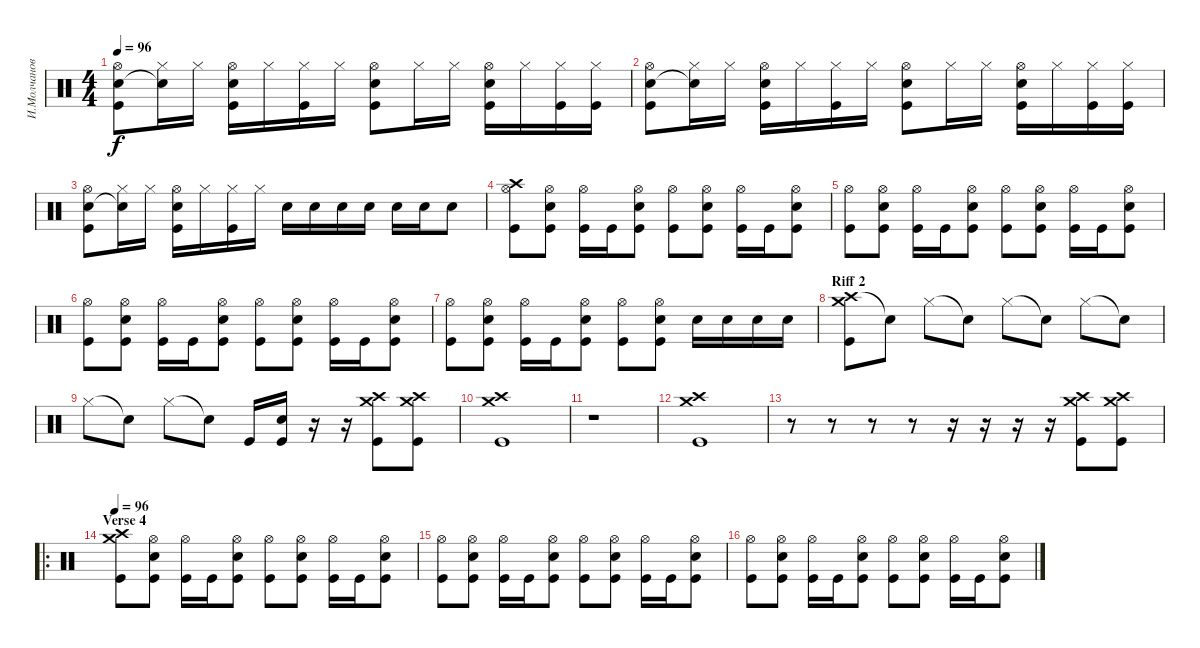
\track ("И.Молчанов" "И.Молчанов") {instrument percussion}
\staff {score}
\articulation defaults
\ts (4 4)
\tempo 96
\clef neutral
\ks c
("Hi-Hat (open)" "Snare (hit) 2" "Kick (hit)").8{dy f} ("Hi-Hat (closed)" "Snare (hit)"{t}).16 "Hi-Hat (closed)".16 ("Hi-Hat (open)" "Snare (hit) 2" "Kick (hit)").16 "Hi-Hat (closed)".16 ("Hi-Hat (closed)" "Kick (hit)").16 "Hi-Hat (closed)".16 ("Hi-Hat (open)" "Snare (hit) 2" "Kick (hit)").8 "Hi-Hat (closed)".16 "Hi-Hat (closed)".16 ("Hi-Hat (open)" "Snare (hit) 2" "Kick (hit)").16 "Hi-Hat (closed)".16 ("Hi-Hat (closed)" "Kick (hit)").16 ("Hi-Hat (closed)" "Kick (hit)").16 |
("Hi-Hat (open)" "Snare (hit) 2" "Kick (hit)").8 ("Hi-Hat (closed)" "Snare (hit)"{t}).16 "Hi-Hat (closed)".16 ("Hi-Hat (open)" "Snare (hit) 2" "Kick (hit)").16 "Hi-Hat (closed)".16 ("Hi-Hat (closed)" "Kick (hit)").16 "Hi-Hat (closed)".16 ("Hi-Hat (open)" "Snare (hit) 2" "Kick (hit)").8 "Hi-Hat (closed)".16 "Hi-Hat (closed)".16 ("Hi-Hat (open)" "Snare (hit) 2" "Kick (hit)").16 "Hi-Hat (closed)".16 ("Hi-Hat (closed)" "Kick (hit)").16 ("Hi-Hat (closed)" "Kick (hit)").16 |
("Hi-Hat (open)" "Snare (hit) 2" "Kick (hit)").8 ("Hi-Hat (closed)" "Snare (hit)"{t}).16 "Hi-Hat (closed)".16 ("Hi-Hat (open)" "Snare (hit) 2" "Kick (hit)").16 "Hi-Hat (closed)".16 ("Hi-Hat (closed)" "Kick (hit)").16 "Hi-Hat (closed)".16 "Snare (hit) 2".16 "Snare (hit) 2".16 "Snare (hit) 2".16 "Snare (hit) 2".16 "Snare (hit) 2".16 "Snare (hit) 2".16 "Snare (hit) 2".8 |
("Hi-Hat (open)" "Crash high (hit)" "Kick (hit)").8 ("Hi-Hat (open)" "Snare (hit) 2" "Kick (hit)").8 ("Hi-Hat (open)" "Kick (hit)").16 "Kick (hit)".16 ("Hi-Hat (open)" "Snare (hit) 2" "Kick (hit)").8 ("Hi-Hat (open)" "Kick (hit)").8 ("Hi-Hat (open)" "Snare (hit) 2" "Kick (hit)").8 ("Hi-Hat (open)" "Kick (hit)").16 "Kick (hit)".16 ("Hi-Hat (open)" "Snare (hit) 2" "Kick (hit)").8 |
("Hi-Hat (open)" "Kick (hit)").8 ("Hi-Hat (open)" "Snare (hit) 2" "Kick (hit)").8 ("Hi-Hat (open)" "Kick (hit)").16 "Kick (hit)".16 ("Hi-Hat (open)" "Snare (hit) 2" "Kick (hit)").8 ("Hi-Hat (open)" "Kick (hit)").8 ("Hi-Hat (open)" "Snare (hit) 2" "Kick (hit)").8 ("Hi-Hat (open)" "Kick (hit)").16 "Kick (hit)".16 ("Hi-Hat (open)" "Snare (hit) 2" "Kick (hit)").8 |
("Hi-Hat (open)" "Kick (hit)").8 ("Hi-Hat (open)" "Snare (hit) 2" "Kick (hit)").8 ("Hi-Hat (open)" "Kick (hit)").16 "Kick (hit)".16 ("Hi-Hat (open)" "Snare (hit) 2" "Kick (hit)").8 ("Hi-Hat (open)" "Kick (hit)").8 ("Hi-Hat (open)" "Snare (hit) 2" "Kick (hit)").8 ("Hi-Hat (open)" "Kick (hit)").16 "Kick (hit)".16 ("Hi-Hat (open)" "Snare (hit) 2" "Kick (hit)").8 |
("Hi-Hat (open)" "Kick (hit)").8 ("Hi-Hat (open)" "Snare (hit) 2" "Kick (hit)").8 ("Hi-Hat (open)" "Kick (hit)").16 "Kick (hit)".16 ("Hi-Hat (open)" "Snare (hit) 2" "Kick (hit)").8 ("Hi-Hat (open)" "Kick (hit)").8 ("Hi-Hat (open)" "Snare (hit) 2" "Kick (hit)").8 "Snare (hit) 2".16 "Snare (hit) 2".16 "Snare (hit) 2".16 "Snare (hit) 2".16 |
\section ("" "Riff 2")
("Crash high (hit)" "Crash medium (hit)" "Kick (hit)").8 "Snare (hit)"{t}.8 "Hi-Hat (closed)".8 "Snare (hit)"{t}.8 "Hi-Hat (closed)".8 "Snare (hit)"{t}.8 "Hi-Hat (closed)".8 "Snare (hit)"{t}.8 |
"Hi-Hat (closed)".8 "Snare (hit)"{t}.8 "Hi-Hat (closed)".8 "Snare (hit)"{t}.8 "Kick (hit)".16 ("Snare (hit) 2" "Kick (hit)").16 r.16 r.16 ("Crash high (hit)" "Crash medium (hit)" "Kick (hit)").8 ("Crash high (hit)" "Crash medium (hit)" "Kick (hit)").8 |
("Crash high (hit)" "Crash medium (hit)" "Kick (hit)").1 |
r.1 |
("Crash high (hit)" "Crash medium (hit)" "Kick (hit)").1 |
r.8 r.8 r.8 r.8 r.16 r.16 r.16 r.16 ("Crash high (hit)" "Crash medium (hit)" "Kick (hit)").8 ("Crash high (hit)" "Crash medium (hit)" "Kick (hit)").8 |
\ro
\section ("" "Verse 4")
\tempo 96
("Crash medium (hit)" "Crash high (hit)" "Kick (hit)").8 ("Hi-Hat (open)" "Snare (hit) 2" "Kick (hit)").8 ("Hi-Hat (open)" "Kick (hit)").16 "Kick (hit)".16 ("Hi-Hat (open)" "Snare (hit) 2" "Kick (hit)").8 ("Hi-Hat (open)" "Kick (hit)").8 ("Hi-Hat (open)" "Snare (hit) 2" "Kick (hit)").8 ("Hi-Hat (open)" "Kick (hit)").16 "Kick (hit)".16 ("Hi-Hat (open)" "Snare (hit) 2" "Kick (hit)").8 |
("Hi-Hat (open)" "Kick (hit)").8 ("Hi-Hat (open)" "Snare (hit) 2" "Kick (hit)").8 ("Hi-Hat (open)" "Kick (hit)").16 "Kick (hit)".16 ("Hi-Hat (open)" "Snare (hit) 2" "Kick (hit)").8 ("Hi-Hat (open)" "Kick (hit)").8 ("Hi-Hat (open)" "Snare (hit) 2" "Kick (hit)").8 ("Hi-Hat (open)" "Kick (hit)").16 "Kick (hit)".16 ("Hi-Hat (open)" "Snare (hit) 2" "Kick (hit)").8 |
("Hi-Hat (open)" "Kick (hit)").8 ("Hi-Hat (open)" "Snare (hit) 2" "Kick (hit)").8 ("Hi-Hat (open)" "Kick (hit)").16 "Kick (hit)".16 ("Hi-Hat (open)" "Snare (hit) 2" "Kick (hit)").8 ("Hi-Hat (open)" "Kick (hit)").8 ("Hi-Hat (open)" "Snare (hit) 2" "Kick (hit)").8 ("Hi-Hat (open)" "Kick (hit)").16 "Kick (hit)".16 ("Hi-Hat (open)" "Snare (hit) 2" "Kick (hit)").8
